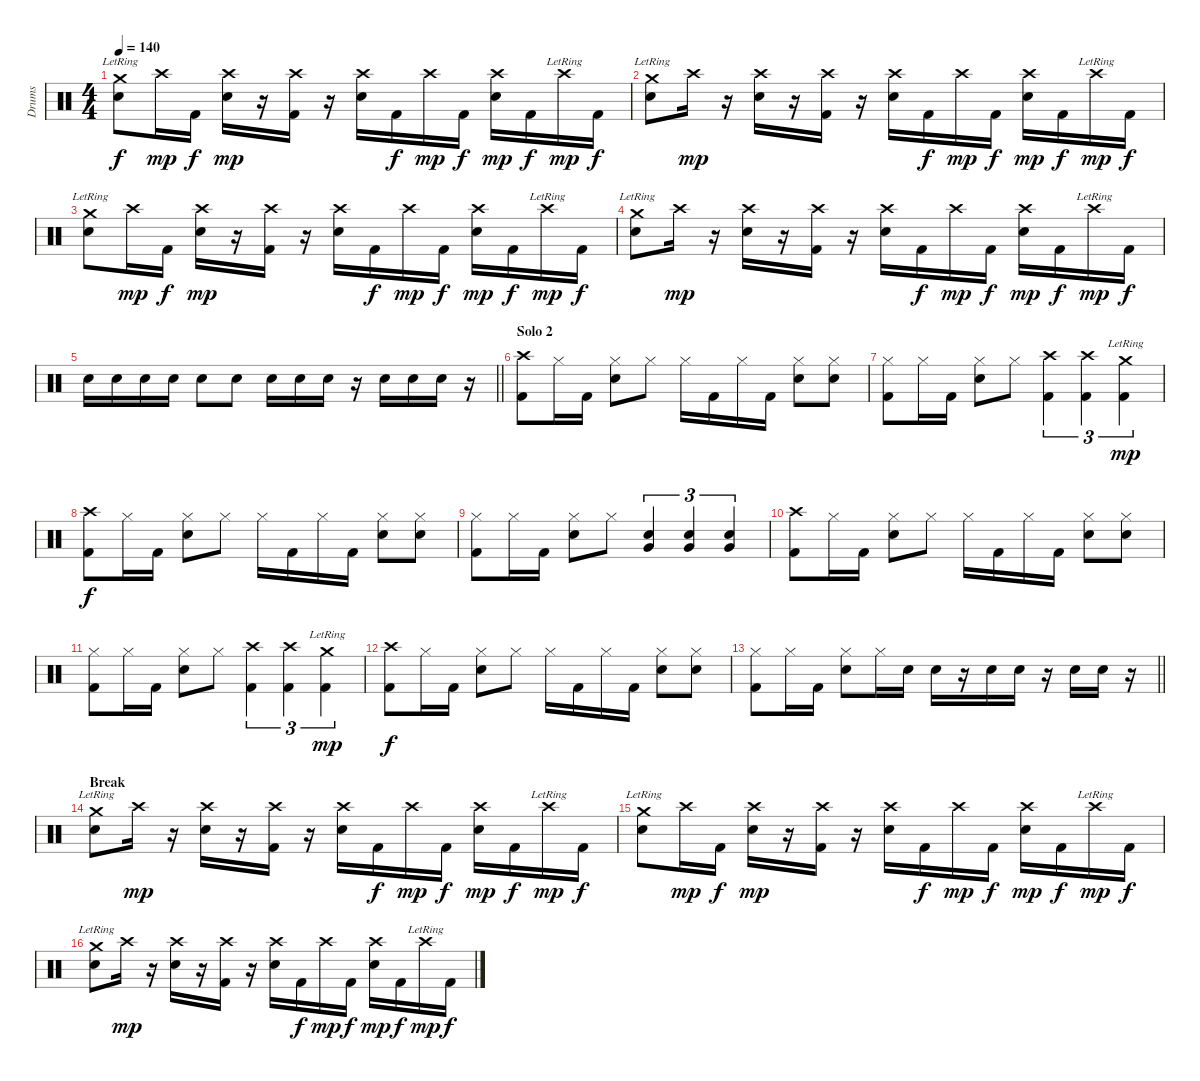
\track ("Drums" "Drums") {instrument percussion}
\staff {score}
\articulation defaults
\ts (4 4)
\tempo 140
\clef neutral
\ks c
("Crash medium (hit)"{lr} "Snare (hit) 2").8{dy f} "Crash high (hit)".16{dy mp} "Kick (hit) 2".16{dy f} ("Crash high (hit)" "Snare (hit) 2").16{dy mp} r.16 ("Crash high (hit)" "Kick (hit) 2").16 r.16 ("Crash high (hit)" "Snare (hit) 2").16 "Kick (hit) 2".16{dy f} "Crash high (hit)".16{dy mp} "Kick (hit) 2".16{dy f} ("Crash high (hit)" "Snare (hit) 2").16{dy mp} "Kick (hit) 2".16{dy f} "Crash high (hit)"{lr}.16{dy mp} "Kick (hit) 2".16{dy f} |
("Crash medium (hit)"{lr} "Snare (hit) 2").8 "Crash high (hit)".16{dy mp} r.16 ("Crash high (hit)" "Snare (hit) 2").16 r.16 ("Crash high (hit)" "Kick (hit) 2").16 r.16 ("Crash high (hit)" "Snare (hit) 2").16 "Kick (hit) 2".16{dy f} "Crash high (hit)".16{dy mp} "Kick (hit) 2".16{dy f} ("Crash high (hit)" "Snare (hit) 2").16{dy mp} "Kick (hit) 2".16{dy f} "Crash high (hit)"{lr}.16{dy mp} "Kick (hit) 2".16{dy f} |
("Crash medium (hit)"{lr} "Snare (hit) 2").8 "Crash high (hit)".16{dy mp} "Kick (hit) 2".16{dy f} ("Crash high (hit)" "Snare (hit) 2").16{dy mp} r.16 ("Crash high (hit)" "Kick (hit) 2").16 r.16 ("Crash high (hit)" "Snare (hit) 2").16 "Kick (hit) 2".16{dy f} "Crash high (hit)".16{dy mp} "Kick (hit) 2".16{dy f} ("Crash high (hit)" "Snare (hit) 2").16{dy mp} "Kick (hit) 2".16{dy f} "Crash high (hit)"{lr}.16{dy mp} "Kick (hit) 2".16{dy f} |
("Crash medium (hit)"{lr} "Snare (hit) 2").8 "Crash high (hit)".16{dy mp} r.16 ("Crash high (hit)" "Snare (hit) 2").16 r.16 ("Crash high (hit)" "Kick (hit) 2").16 r.16 ("Crash high (hit)" "Snare (hit) 2").16 "Kick (hit) 2".16{dy f} "Crash high (hit)".16{dy mp} "Kick (hit) 2".16{dy f} ("Crash high (hit)" "Snare (hit) 2").16{dy mp} "Kick (hit) 2".16{dy f} "Crash high (hit)"{lr}.16{dy mp} "Kick (hit) 2".16{dy f} |
\barLineRight lightlight "Snare (hit) 2".16 "Snare (hit) 2".16 "Snare (hit) 2".16 "Snare (hit) 2".16 "Snare (hit) 2".8 "Snare (hit) 2".8 "Snare (hit) 2".16 "Snare (hit) 2".16 "Snare (hit) 2".16
r.16 "Snare (hit) 2".16 "Snare (hit) 2".16 "Snare (hit) 2".16 r.16 |
\section ("" "Solo 2")
("Crash high (hit)" "Kick (hit) 2").8 "Hi-Hat (closed)".16 "Kick (hit) 2".16 ("Hi-Hat (closed)" "Snare (hit) 2").8 "Hi-Hat (closed)".8 "Hi-Hat (closed)".16 "Kick (hit) 2".16 "Hi-Hat (closed)".16 "Kick (hit) 2".16 ("Hi-Hat (closed)" "Snare (hit) 2").8 ("Hi-Hat (closed)" "Snare (hit) 2").8 |
("Hi-Hat (closed)" "Kick (hit) 2").8 "Hi-Hat (closed)".16 "Kick (hit) 2".16 ("Hi-Hat (closed)" "Snare (hit) 2").8 "Hi-Hat (closed)".8 ("Crash high (hit)" "Kick (hit) 2").4{tu (3 2)} ("Crash high (hit)" "Kick (hit) 2").4{tu (3 2)} ("Crash medium (hit)"{lr} "Kick (hit) 2").4{tu (3 2) dy mp} |
("Crash high (hit)" "Kick (hit) 2").8{dy f} "Hi-Hat (closed)".16 "Kick (hit) 2".16 ("Hi-Hat (closed)" "Snare (hit) 2").8 "Hi-Hat (closed)".8 "Hi-Hat (closed)".16 "Kick (hit) 2".16 "Hi-Hat (closed)".16 "Kick (hit) 2".16 ("Hi-Hat (closed)" "Snare (hit) 2").8 ("Hi-Hat (closed)" "Snare (hit) 2").8 |
("Hi-Hat (closed)" "Kick (hit) 2").8 "Hi-Hat (closed)".16 "Kick (hit) 2".16 ("Hi-Hat (closed)" "Snare (hit) 2").8 "Hi-Hat (closed)".8 ("Snare (hit) 2" "Very Low Tom (hit)").4{tu (3 2)} ("Snare (hit) 2" "Very Low Tom (hit)").4{tu (3 2)} ("Snare (hit) 2" "Very Low Tom (hit)").4{tu (3 2)} |
("Crash high (hit)" "Kick (hit) 2").8 "Hi-Hat (closed)".16 "Kick (hit) 2".16 ("Hi-Hat (closed)" "Snare (hit) 2").8 "Hi-Hat (closed)".8 "Hi-Hat (closed)".16 "Kick (hit) 2".16 "Hi-Hat (closed)".16 "Kick (hit) 2".16 ("Hi-Hat (closed)" "Snare (hit) 2").8 ("Hi-Hat (closed)" "Snare (hit) 2").8 |
("Hi-Hat (closed)" "Kick (hit) 2").8 "Hi-Hat (closed)".16 "Kick (hit) 2".16 ("Hi-Hat (closed)" "Snare (hit) 2").8 "Hi-Hat (closed)".8 ("Crash high (hit)" "Kick (hit) 2").4{tu (3 2)} ("Crash high (hit)" "Kick (hit) 2").4{tu (3 2)} ("Crash medium (hit)"{lr} "Kick (hit) 2").4{tu (3 2) dy mp} |
("Crash high (hit)" "Kick (hit) 2").8{dy f} "Hi-Hat (closed)".16 "Kick (hit) 2".16 ("Hi-Hat (closed)" "Snare (hit) 2").8 "Hi-Hat (closed)".8 "Hi-Hat (closed)".16 "Kick (hit) 2".16 "Hi-Hat (closed)".16 "Kick (hit) 2".16 ("Hi-Hat (closed)" "Snare (hit) 2").8 ("Hi-Hat (closed)" "Snare (hit) 2").8 |
\barLineRight lightlight
("Hi-Hat (closed)" "Kick (hit) 2").8 "Hi-Hat (closed)".16 "Kick (hit) 2".16 ("Hi-Hat (closed)" "Snare (hit) 2").8 "Hi-Hat (closed)".16 "Snare (hit) 2".16 "Snare (hit) 2".16 r.16 "Snare (hit) 2".16 "Snare (hit) 2".16 r.16 "Snare (hit) 2".16 "Snare (hit) 2".16 r.16 |
\section ("" "Break")
("Crash medium (hit)"{lr} "Snare (hit) 2").8 "Crash high (hit)".16{dy mp} r.16 ("Crash high (hit)" "Snare (hit) 2").16 r.16 ("Crash high (hit)" "Kick (hit) 2").16 r.16 ("Crash high (hit)" "Snare (hit) 2").16 "Kick (hit) 2".16{dy f} "Crash high (hit)".16{dy mp} "Kick (hit) 2".16{dy f} ("Crash high (hit)" "Snare (hit) 2").16{dy mp} "Kick (hit) 2".16{dy f} "Crash high (hit)"{lr}.16{dy mp} "Kick (hit) 2".16{dy f} |
("Crash medium (hit)"{lr} "Snare (hit) 2").8 "Crash high (hit)".16{dy mp} "Kick (hit) 2".16{dy f} ("Crash high (hit)" "Snare (hit) 2").16{dy mp} r.16 ("Crash high (hit)" "Kick (hit) 2").16 r.16 ("Crash high (hit)" "Snare (hit) 2").16 "Kick (hit) 2".16{dy f} "Crash high (hit)".16{dy mp} "Kick (hit) 2".16{dy f} ("Crash high (hit)" "Snare (hit) 2").16{dy mp} "Kick (hit) 2".16{dy f} "Crash high (hit)"{lr}.16{dy mp} "Kick (hit) 2".16{dy f} |
("Crash medium (hit)"{lr} "Snare (hit) 2").8 "Crash high (hit)".16{dy mp} r.16 ("Crash high (hit)" "Snare (hit) 2").16 r.16 ("Crash high (hit)" "Kick (hit) 2").16 r.16 ("Crash high (hit)" "Snare (hit) 2").16 "Kick (hit) 2".16{dy f} "Crash high (hit)".16{dy mp} "Kick (hit) 2".16{dy f} ("Crash high (hit)" "Snare (hit) 2").16{dy mp} "Kick (hit) 2".16{dy f} "Crash high (hit)"{lr}.16{dy mp} "Kick (hit) 2".16{dy f}
